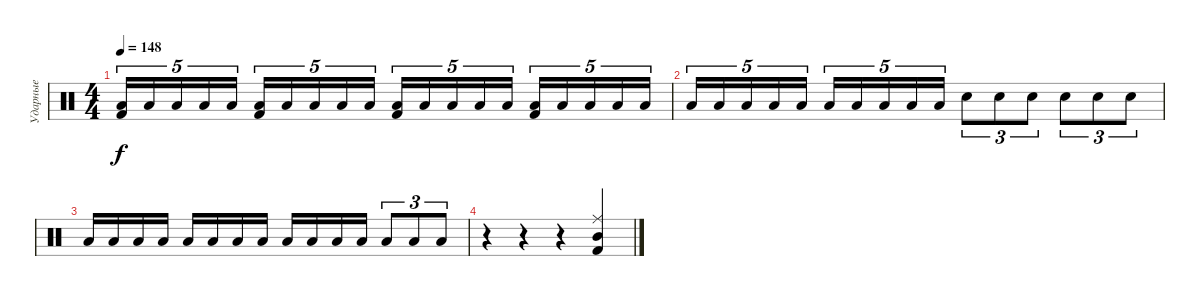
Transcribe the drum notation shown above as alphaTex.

\track ("Ударные" "Ударные") {instrument percussion}
\staff {score}
\articulation defaults
\ts (4 4)
\tempo 148
\clef neutral
\ks c
("Low Floor Tom (hit)" "Kick (hit) 2").16{tu (5 4) dy f} "Low Floor Tom (hit)".16{tu (5 4)} "Low Floor Tom (hit)".16{tu (5 4)} "Low Floor Tom (hit)".16{tu (5 4)} "Low Floor Tom (hit)".16{tu (5 4)} ("Low Floor Tom (hit)" "Kick (hit) 2").16{tu (5 4)} "Low Floor Tom (hit)".16{tu (5 4)} "Low Floor Tom (hit)".16{tu (5 4)} "Low Floor Tom (hit)".16{tu (5 4)} "Low Floor Tom (hit)".16{tu (5 4)} ("Low Floor Tom (hit)" "Kick (hit) 2").16{tu (5 4)} "Low Floor Tom (hit)".16{tu (5 4)} "Low Floor Tom (hit)".16{tu (5 4)} "Low Floor Tom (hit)".16{tu (5 4)} "Low Floor Tom (hit)".16{tu (5 4)} ("Low Floor Tom (hit)" "Kick (hit) 2").16{tu (5 4)} "Low Floor Tom (hit)".16{tu (5 4)} "Low Floor Tom (hit)".16{tu (5 4)} "Low Floor Tom (hit)".16{tu (5 4)} "Low Floor Tom (hit)".16{tu (5 4)} |
"Low Floor Tom (hit)".16{tu (5 4)} "Low Floor Tom (hit)".16{tu (5 4)} "Low Floor Tom (hit)".16{tu (5 4)} "Low Floor Tom (hit)".16{tu (5 4)} "Low Floor Tom (hit)".16{tu (5 4)} "Low Floor Tom (hit)".16{tu (5 4)} "Low Floor Tom (hit)".16{tu (5 4)} "Low Floor Tom (hit)".16{tu (5 4)} "Low Floor Tom (hit)".16{tu (5 4)} "Low Floor Tom (hit)".16{tu (5 4)} "Snare (hit) 2".8{tu (3 2)} "Snare (hit) 2".8{tu (3 2)} "Snare (hit) 2".8{tu (3 2)} "Snare (hit) 2".8{tu (3 2)} "Snare (hit) 2".8{tu (3 2)} "Snare (hit) 2".8{tu (3 2)} |
"Low Floor Tom (hit)".16 "Low Floor Tom (hit)".16 "Low Floor Tom (hit)".16 "Low Floor Tom (hit)".16 "Low Floor Tom (hit)".16 "Low Floor Tom (hit)".16 "Low Floor Tom (hit)".16 "Low Floor Tom (hit)".16 "Low Floor Tom (hit)".16 "Low Floor Tom (hit)".16 "Low Floor Tom (hit)".16 "Low Floor Tom (hit)".16 "Low Floor Tom (hit)".8{tu (3 2)} "Low Floor Tom (hit)".8{tu (3 2)} "Low Floor Tom (hit)".8{tu (3 2)} |
r.4 r.4 r.4 ("Ride (middle)" "Mid Tom (hit)" "Kick (hit) 2").4
